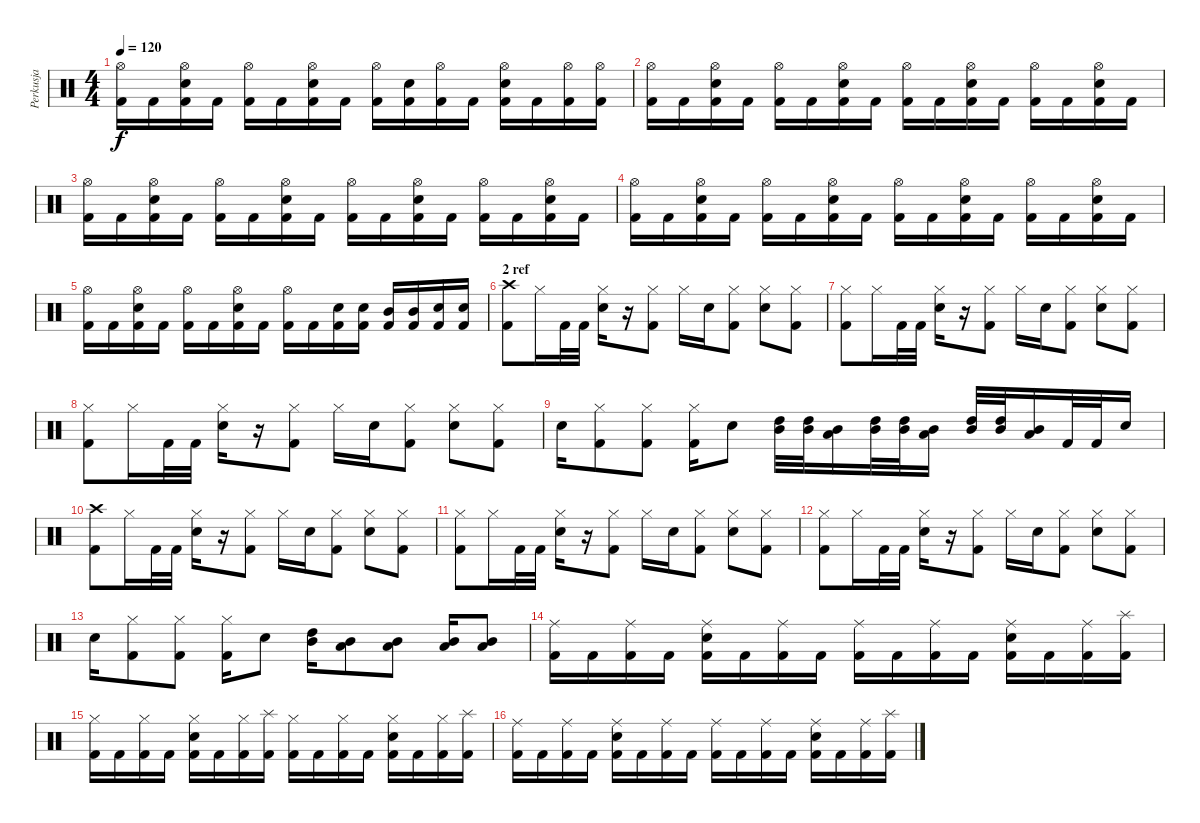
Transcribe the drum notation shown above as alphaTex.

\track ("Perkusja" "Perkusja") {instrument percussion}
\staff {score}
\articulation defaults
\ts (4 4)
\tempo 120
\clef neutral
\ks c
("Hi-Hat (open)" "Kick (hit) 2").16{dy f} "Kick (hit) 2".16 ("Hi-Hat (open)" "Snare (hit) 2" "Kick (hit) 2").16 "Kick (hit) 2".16 ("Hi-Hat (open)" "Kick (hit) 2").16 "Kick (hit) 2".16 ("Hi-Hat (open)" "Snare (hit) 2" "Kick (hit) 2").16 "Kick (hit) 2".16 ("Hi-Hat (open)" "Kick (hit) 2").16 ("Snare (hit) 2" "Kick (hit) 2").16 ("Hi-Hat (open)" "Kick (hit) 2").16 "Kick (hit) 2".16 ("Hi-Hat (open)" "Snare (hit) 2" "Kick (hit) 2").16 "Kick (hit) 2".16 ("Hi-Hat (open)" "Kick (hit) 2").16 ("Hi-Hat (open)" "Kick (hit) 2").16 |
("Hi-Hat (open)" "Kick (hit) 2").16 "Kick (hit) 2".16 ("Hi-Hat (open)" "Snare (hit) 2" "Kick (hit) 2").16 "Kick (hit) 2".16 ("Hi-Hat (open)" "Kick (hit) 2").16 "Kick (hit) 2".16 ("Hi-Hat (open)" "Snare (hit) 2" "Kick (hit) 2").16 "Kick (hit) 2".16 ("Hi-Hat (open)" "Kick (hit) 2").16 "Kick (hit) 2".16 ("Hi-Hat (open)" "Snare (hit) 2" "Kick (hit) 2").16 "Kick (hit) 2".16 ("Hi-Hat (open)" "Kick (hit) 2").16 "Kick (hit) 2".16 ("Hi-Hat (open)" "Snare (hit) 2" "Kick (hit) 2").16 "Kick (hit) 2".16 |
("Hi-Hat (open)" "Kick (hit) 2").16 "Kick (hit) 2".16 ("Hi-Hat (open)" "Snare (hit) 2" "Kick (hit) 2").16 "Kick (hit) 2".16 ("Hi-Hat (open)" "Kick (hit) 2").16 "Kick (hit) 2".16 ("Hi-Hat (open)" "Snare (hit) 2" "Kick (hit) 2").16 "Kick (hit) 2".16 ("Hi-Hat (open)" "Kick (hit) 2").16 "Kick (hit) 2".16 ("Hi-Hat (open)" "Snare (hit) 2" "Kick (hit) 2").16 "Kick (hit) 2".16 ("Hi-Hat (open)" "Kick (hit) 2").16 "Kick (hit) 2".16 ("Hi-Hat (open)" "Snare (hit) 2" "Kick (hit) 2").16 "Kick (hit) 2".16 |
("Hi-Hat (open)" "Kick (hit) 2").16 "Kick (hit) 2".16 ("Hi-Hat (open)" "Snare (hit) 2" "Kick (hit) 2").16 "Kick (hit) 2".16 ("Hi-Hat (open)" "Kick (hit) 2").16 "Kick (hit) 2".16 ("Hi-Hat (open)" "Snare (hit) 2" "Kick (hit) 2").16 "Kick (hit) 2".16 ("Hi-Hat (open)" "Kick (hit) 2").16 "Kick (hit) 2".16 ("Hi-Hat (open)" "Snare (hit) 2" "Kick (hit) 2").16 "Kick (hit) 2".16 ("Hi-Hat (open)" "Kick (hit) 2").16 "Kick (hit) 2".16 ("Hi-Hat (open)" "Snare (hit) 2" "Kick (hit) 2").16 "Kick (hit) 2".16 |
("Hi-Hat (open)" "Kick (hit) 2").16 "Kick (hit) 2".16 ("Hi-Hat (open)" "Snare (hit) 2" "Kick (hit) 2").16 "Kick (hit) 2".16 ("Hi-Hat (open)" "Kick (hit) 2").16 "Kick (hit) 2".16 ("Hi-Hat (open)" "Snare (hit) 2" "Kick (hit) 2").16 "Kick (hit) 2".16 ("Hi-Hat (open)" "Kick (hit) 2").16 "Kick (hit) 2".16 ("Snare (hit) 2" "Kick (hit) 2").16 ("Snare (hit) 2" "Kick (hit) 2").16 ("Mid Tom (hit)" "Kick (hit) 2").16 ("Mid Tom (hit)" "Kick (hit) 2").16 ("Snare (hit) 2" "Kick (hit) 2").16 ("Snare (hit) 2" "Kick (hit) 2").16 |
\section ("" "2 ref")
("Crash high (hit)" "Kick (hit) 2").8 "Hi-Hat (closed)".16 "Kick (hit) 2".32 "Kick (hit) 2".32 ("Hi-Hat (closed)" "Snare (hit) 2").16 r.16 ("Hi-Hat (closed)" "Kick (hit) 2").8 "Hi-Hat (closed)".16 "Snare (hit) 2".16 ("Hi-Hat (closed)" "Kick (hit) 2").8 ("Hi-Hat (closed)" "Snare (hit) 2").8 ("Hi-Hat (closed)" "Kick (hit) 2").8 |
("Hi-Hat (closed)" "Kick (hit) 2").8 "Hi-Hat (closed)".16 "Kick (hit) 2".32 "Kick (hit) 2".32 ("Hi-Hat (closed)" "Snare (hit) 2").16 r.16 ("Hi-Hat (closed)" "Kick (hit) 2").8 "Hi-Hat (closed)".16 "Snare (hit) 2".16 ("Hi-Hat (closed)" "Kick (hit) 2").8 ("Hi-Hat (closed)" "Snare (hit) 2").8 ("Hi-Hat (closed)" "Kick (hit) 2").8 |
("Hi-Hat (closed)" "Kick (hit) 2").8 "Hi-Hat (closed)".16 "Kick (hit) 2".32 "Kick (hit) 2".32 ("Hi-Hat (closed)" "Snare (hit) 2").16 r.16 ("Hi-Hat (closed)" "Kick (hit) 2").8 "Hi-Hat (closed)".16 "Snare (hit) 2".16 ("Hi-Hat (closed)" "Kick (hit) 2").8 ("Hi-Hat (closed)" "Snare (hit) 2").8 ("Hi-Hat (closed)" "Kick (hit) 2").8 |
"Snare (hit) 2".16 ("Hi-Hat (closed)" "Kick (hit) 2").8 ("Hi-Hat (closed)" "Kick (hit) 2").8 ("Hi-Hat (closed)" "Kick (hit) 2").16 "Snare (hit) 2".8 ("High Tom (hit)" "Mid Tom (hit)").32 ("High Tom (hit)" "Mid Tom (hit)").32 ("Low Tom (hit)" "Mid Tom (hit)").16 ("High Tom (hit)" "Mid Tom (hit)").32 ("High Tom (hit)" "Mid Tom (hit)").32 ("Low Tom (hit)" "Mid Tom (hit)").16 ("High Tom (hit)" "Mid Tom (hit)").32 ("High Tom (hit)" "Mid Tom (hit)").32 ("Low Tom (hit)" "Mid Tom (hit)").16 "Kick (hit) 2".32 "Kick (hit) 2".32 "Snare (hit) 2".16 |
("Crash high (hit)" "Kick (hit) 2").8 "Hi-Hat (closed)".16 "Kick (hit) 2".32 "Kick (hit) 2".32 ("Hi-Hat (closed)" "Snare (hit) 2").16 r.16 ("Hi-Hat (closed)" "Kick (hit) 2").8 "Hi-Hat (closed)".16 "Snare (hit) 2".16 ("Hi-Hat (closed)" "Kick (hit) 2").8 ("Hi-Hat (closed)" "Snare (hit) 2").8 ("Hi-Hat (closed)" "Kick (hit) 2").8 |
("Hi-Hat (closed)" "Kick (hit) 2").8 "Hi-Hat (closed)".16 "Kick (hit) 2".32 "Kick (hit) 2".32 ("Hi-Hat (closed)" "Snare (hit) 2").16 r.16 ("Hi-Hat (closed)" "Kick (hit) 2").8 "Hi-Hat (closed)".16 "Snare (hit) 2".16 ("Hi-Hat (closed)" "Kick (hit) 2").8 ("Hi-Hat (closed)" "Snare (hit) 2").8 ("Hi-Hat (closed)" "Kick (hit) 2").8 |
("Hi-Hat (closed)" "Kick (hit) 2").8 "Hi-Hat (closed)".16 "Kick (hit) 2".32 "Kick (hit) 2".32 ("Hi-Hat (closed)" "Snare (hit) 2").16 r.16 ("Hi-Hat (closed)" "Kick (hit) 2").8 "Hi-Hat (closed)".16 "Snare (hit) 2".16 ("Hi-Hat (closed)" "Kick (hit) 2").8 ("Hi-Hat (closed)" "Snare (hit) 2").8 ("Hi-Hat (closed)" "Kick (hit) 2").8 |
"Snare (hit) 2".16 ("Hi-Hat (closed)" "Kick (hit) 2").8 ("Hi-Hat (closed)" "Kick (hit) 2").8 ("Hi-Hat (closed)" "Kick (hit) 2").16 "Snare (hit) 2".8 ("High Tom (hit)" "Mid Tom (hit)").16 ("Low Tom (hit)" "Mid Tom (hit)").8 ("Low Tom (hit)" "Mid Tom (hit)").8 ("Low Tom (hit)" "Mid Tom (hit)").16 ("Low Tom (hit)" "Mid Tom (hit)").8 |
("Ride (middle)" "Kick (hit) 2").16 "Kick (hit) 2".16 ("Ride (middle)" "Kick (hit) 2").16 "Kick (hit) 2".16 ("Ride (middle)" "Snare (hit) 2" "Kick (hit) 2").16 "Kick (hit) 2".16 ("Ride (middle)" "Kick (hit) 2").16 "Kick (hit) 2".16 ("Ride (middle)" "Kick (hit) 2").16 "Kick (hit) 2".16 ("Ride (middle)" "Kick (hit) 2").16 "Kick (hit) 2".16 ("Ride (middle)" "Snare (hit) 2" "Kick (hit) 2").16 "Kick (hit) 2".16 ("Ride (middle)" "Kick (hit) 2").16 ("Splash (hit)" "Kick (hit) 2").16 |
("Hi-Hat (closed)" "Kick (hit) 2").16 "Kick (hit) 2".16 ("Hi-Hat (closed)" "Kick (hit) 2").16 "Kick (hit) 2".16 ("Hi-Hat (closed)" "Snare (hit) 2" "Kick (hit) 2").16 "Kick (hit) 2".16 ("Hi-Hat (closed)" "Kick (hit) 2").16 ("Splash (hit)" "Kick (hit) 2").16 ("Hi-Hat (closed)" "Kick (hit) 2").16 "Kick (hit) 2".16 ("Hi-Hat (closed)" "Kick (hit) 2").16 "Kick (hit) 2".16 ("Hi-Hat (closed)" "Snare (hit) 2" "Kick (hit) 2").16 "Kick (hit) 2".16 ("Hi-Hat (closed)" "Kick (hit) 2").16 ("Splash (hit)" "Kick (hit) 2").16 |
("Ride (middle)" "Kick (hit) 2").16 "Kick (hit) 2".16 ("Ride (middle)" "Kick (hit) 2").16 "Kick (hit) 2".16 ("Ride (middle)" "Snare (hit) 2" "Kick (hit) 2").16 "Kick (hit) 2".16 ("Ride (middle)" "Kick (hit) 2").16 "Kick (hit) 2".16 ("Ride (middle)" "Kick (hit) 2").16 "Kick (hit) 2".16 ("Ride (middle)" "Kick (hit) 2").16 "Kick (hit) 2".16 ("Ride (middle)" "Snare (hit) 2" "Kick (hit) 2").16 "Kick (hit) 2".16 ("Ride (middle)" "Kick (hit) 2").16 ("Splash (hit)" "Kick (hit) 2").16
